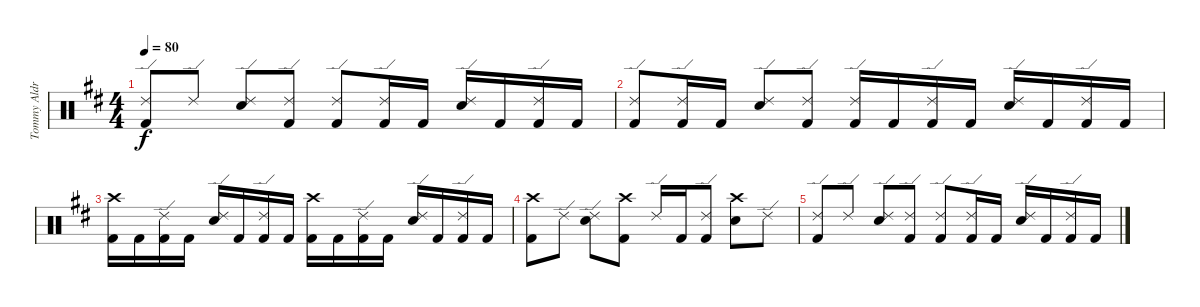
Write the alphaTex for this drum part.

\track ("Tommy Aldridge" "Tommy Aldr") {instrument percussion}
\staff {score}
\articulation defaults
\ts (4 4)
\tempo 80
\clef neutral
\ks bminor
("Ride (edge) 2" "Kick (hit) 2").8{dy f} "Ride (edge) 2".8 ("Ride (edge) 2" "Snare (hit) 2").8 ("Ride (edge) 2" "Kick (hit) 2").8 ("Ride (edge) 2" "Kick (hit) 2").8 ("Ride (edge) 2" "Kick (hit) 2").16 "Kick (hit) 2".16 ("Ride (edge) 2" "Snare (hit) 2").16 "Kick (hit) 2".16 ("Ride (edge) 2" "Kick (hit) 2").16 "Kick (hit) 2".16 |
("Ride (edge) 2" "Kick (hit) 2").8 ("Ride (edge) 2" "Kick (hit) 2").16 "Kick (hit) 2".16 ("Ride (edge) 2" "Snare (hit) 2").8 ("Ride (edge) 2" "Kick (hit) 2").8 ("Ride (edge) 2" "Kick (hit) 2").16 "Kick (hit) 2".16 ("Ride (edge) 2" "Kick (hit) 2").16 "Kick (hit) 2".16 ("Ride (edge) 2" "Snare (hit) 2").16 "Kick (hit) 2".16 ("Ride (edge) 2" "Kick (hit) 2").16 "Kick (hit) 2".16 |
("Crash high (hit)" "Kick (hit) 2").16 "Kick (hit) 2".16 ("Ride (edge) 2" "Kick (hit) 2").16 "Kick (hit) 2".16 ("Ride (edge) 2" "Snare (hit) 2").16 "Kick (hit) 2".16 ("Ride (edge) 2" "Kick (hit) 2").16 "Kick (hit) 2".16 ("Crash high (hit)" "Kick (hit) 2").16 "Kick (hit) 2".16 ("Ride (edge) 2" "Kick (hit) 2").16 "Kick (hit) 2".16 ("Ride (edge) 2" "Snare (hit) 2").16 "Kick (hit) 2".16 ("Ride (edge) 2" "Kick (hit) 2").16 "Kick (hit) 2".16 |
("Crash high (hit)" "Kick (hit) 2").8 "Ride (edge) 2".8 ("Ride (edge) 2" "Snare (hit) 2").8 ("Crash high (hit)" "Kick (hit) 2").8 "Ride (edge) 2".16 "Kick (hit) 2".16 ("Ride (edge) 2" "Kick (hit) 2").8 ("Crash high (hit)" "Snare (hit) 2").8 "Ride (edge) 2".8 |
("Ride (edge) 2" "Kick (hit) 2").8 "Ride (edge) 2".8 ("Ride (edge) 2" "Snare (hit) 2").8 ("Ride (edge) 2" "Kick (hit) 2").8 ("Ride (edge) 2" "Kick (hit) 2").8 ("Ride (edge) 2" "Kick (hit) 2").16 "Kick (hit) 2".16 ("Ride (edge) 2" "Snare (hit) 2").16 "Kick (hit) 2".16 ("Ride (edge) 2" "Kick (hit) 2").16 "Kick (hit) 2".16
